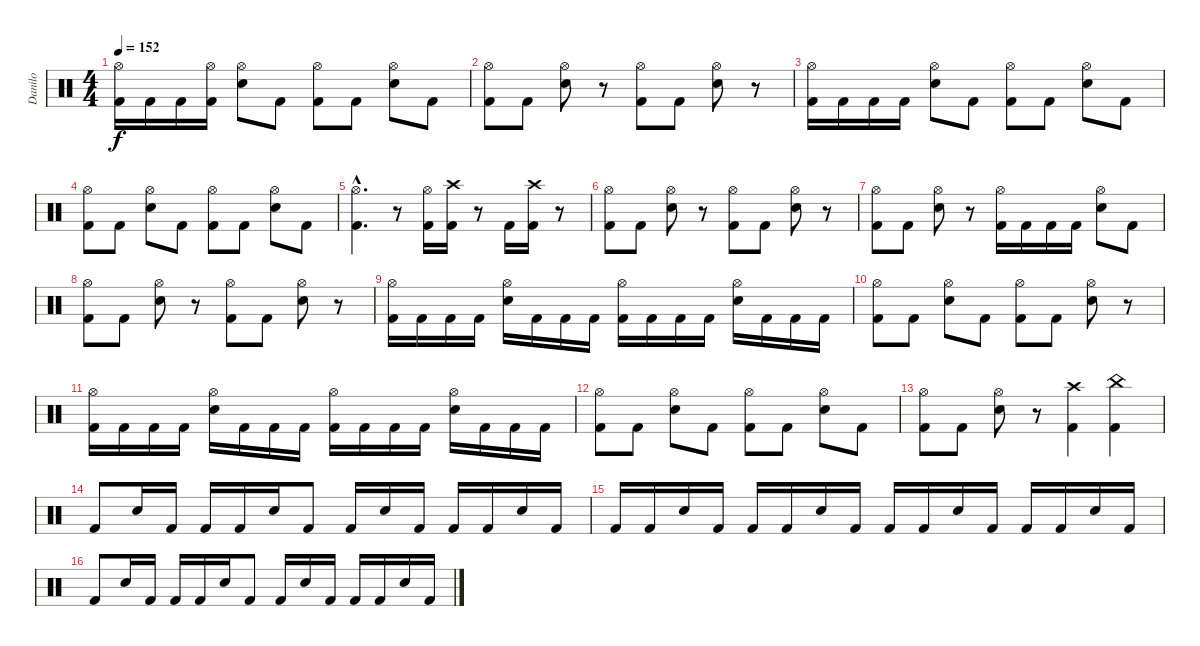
\track ("Danilo" "Danilo") {instrument percussion}
\staff {score}
\articulation defaults
\ts (4 4)
\tempo 152
\clef neutral
\ks c
("Hi-Hat (open)" "Kick (hit) 2").16{dy f} "Kick (hit) 2".16 "Kick (hit) 2".16 ("Hi-Hat (open)" "Kick (hit) 2").16 ("Hi-Hat (open)" "Snare (hit) 2").8 "Kick (hit) 2".8 ("Hi-Hat (open)" "Kick (hit) 2").8 "Kick (hit) 2".8 ("Hi-Hat (open)" "Snare (hit) 2").8 "Kick (hit) 2".8 |
("Hi-Hat (open)" "Kick (hit) 2").8 "Kick (hit) 2".8 ("Hi-Hat (open)" "Snare (hit) 2").8 r.8 ("Hi-Hat (open)" "Kick (hit) 2").8 "Kick (hit) 2".8 ("Hi-Hat (open)" "Snare (hit) 2").8 r.8 |
("Hi-Hat (open)" "Kick (hit) 2").16 "Kick (hit) 2".16 "Kick (hit) 2".16 "Kick (hit) 2".16 ("Hi-Hat (open)" "Snare (hit) 2").8 "Kick (hit) 2".8 ("Hi-Hat (open)" "Kick (hit) 2").8 "Kick (hit) 2".8 ("Hi-Hat (open)" "Snare (hit) 2").8 "Kick (hit) 2".8 |
("Hi-Hat (open)" "Kick (hit) 2").8 "Kick (hit) 2".8 ("Hi-Hat (open)" "Snare (hit) 2").8 "Kick (hit) 2".8 ("Hi-Hat (open)" "Kick (hit) 2").8 "Kick (hit) 2".8 ("Hi-Hat (open)" "Snare (hit) 2").8 "Kick (hit) 2".8 |
("Hi-Hat (open)"{hac} "Kick (hit) 2"{hac}).4{d} r.8 ("Hi-Hat (open)" "Kick (hit) 2").16 ("Crash high (hit)" "Kick (hit) 2").16 r.8 "Kick (hit) 2".16 ("Crash high (hit)" "Kick (hit) 2").16 r.8 |
("Hi-Hat (open)" "Kick (hit) 2").8 "Kick (hit) 2".8 ("Hi-Hat (open)" "Snare (hit) 2").8 r.8 ("Hi-Hat (open)" "Kick (hit) 2").8 "Kick (hit) 2".8 ("Hi-Hat (open)" "Snare (hit) 2").8 r.8 |
("Hi-Hat (open)" "Kick (hit) 2").8 "Kick (hit) 2".8 ("Hi-Hat (open)" "Snare (hit) 2").8 r.8 ("Hi-Hat (open)" "Kick (hit) 2").16 "Kick (hit) 2".16 "Kick (hit) 2".16 "Kick (hit) 2".16 ("Hi-Hat (open)" "Snare (hit) 2").8 "Kick (hit) 2".8 |
("Hi-Hat (open)" "Kick (hit) 2").8 "Kick (hit) 2".8 ("Hi-Hat (open)" "Snare (hit) 2").8 r.8 ("Hi-Hat (open)" "Kick (hit) 2").8 "Kick (hit) 2".8 ("Hi-Hat (open)" "Snare (hit) 2").8 r.8 |
("Hi-Hat (open)" "Kick (hit) 2").16 "Kick (hit) 2".16 "Kick (hit) 2".16 "Kick (hit) 2".16 ("Hi-Hat (open)" "Snare (hit) 2").16 "Kick (hit) 2".16 "Kick (hit) 2".16 "Kick (hit) 2".16 ("Hi-Hat (open)" "Kick (hit) 2").16 "Kick (hit) 2".16 "Kick (hit) 2".16 "Kick (hit) 2".16 ("Hi-Hat (open)" "Snare (hit) 2").16 "Kick (hit) 2".16 "Kick (hit) 2".16 "Kick (hit) 2".16 |
("Hi-Hat (open)" "Kick (hit) 2").8 "Kick (hit) 2".8 ("Hi-Hat (open)" "Snare (hit) 2").8 "Kick (hit) 2".8 ("Hi-Hat (open)" "Kick (hit) 2").8 "Kick (hit) 2".8 ("Hi-Hat (open)" "Snare (hit) 2").8 r.8 |
("Hi-Hat (open)" "Kick (hit) 2").16 "Kick (hit) 2".16 "Kick (hit) 2".16 "Kick (hit) 2".16 ("Hi-Hat (open)" "Snare (hit) 2").16 "Kick (hit) 2".16 "Kick (hit) 2".16 "Kick (hit) 2".16 ("Hi-Hat (open)" "Kick (hit) 2").16 "Kick (hit) 2".16 "Kick (hit) 2".16 "Kick (hit) 2".16 ("Hi-Hat (open)" "Snare (hit) 2").16 "Kick (hit) 2".16 "Kick (hit) 2".16 "Kick (hit) 2".16 |
("Hi-Hat (open)" "Kick (hit) 2").8 "Kick (hit) 2".8 ("Hi-Hat (open)" "Snare (hit) 2").8 "Kick (hit) 2".8 ("Hi-Hat (open)" "Kick (hit) 2").8 "Kick (hit) 2".8 ("Hi-Hat (open)" "Snare (hit) 2").8 "Kick (hit) 2".8 |
("Hi-Hat (open)" "Kick (hit) 2").8 "Kick (hit) 2".8 ("Hi-Hat (open)" "Snare (hit) 2").8 r.8 ("Crash high (hit)" "Kick (hit) 2").4 ("China (hit)" "Kick (hit) 2").4 |
"Kick (hit) 2".8 "Snare (hit) 2".16 "Kick (hit) 2".16 "Kick (hit) 2".16 "Kick (hit) 2".16 "Snare (hit) 2".16 "Kick (hit) 2".8 "Kick (hit) 2".16 "Snare (hit) 2".16 "Kick (hit) 2".16 "Kick (hit) 2".16 "Kick (hit) 2".16 "Snare (hit) 2".16 "Kick (hit) 2".16 |
"Kick (hit) 2".16 "Kick (hit) 2".16 "Snare (hit) 2".16 "Kick (hit) 2".16 "Kick (hit) 2".16 "Kick (hit) 2".16 "Snare (hit) 2".16 "Kick (hit) 2".16 "Kick (hit) 2".16 "Kick (hit) 2".16 "Snare (hit) 2".16 "Kick (hit) 2".16 "Kick (hit) 2".16 "Kick (hit) 2".16 "Snare (hit) 2".16 "Kick (hit) 2".16 |
"Kick (hit) 2".8 "Snare (hit) 2".16 "Kick (hit) 2".16 "Kick (hit) 2".16 "Kick (hit) 2".16 "Snare (hit) 2".16 "Kick (hit) 2".8 "Kick (hit) 2".16 "Snare (hit) 2".16 "Kick (hit) 2".16 "Kick (hit) 2".16 "Kick (hit) 2".16 "Snare (hit) 2".16 "Kick (hit) 2".16
